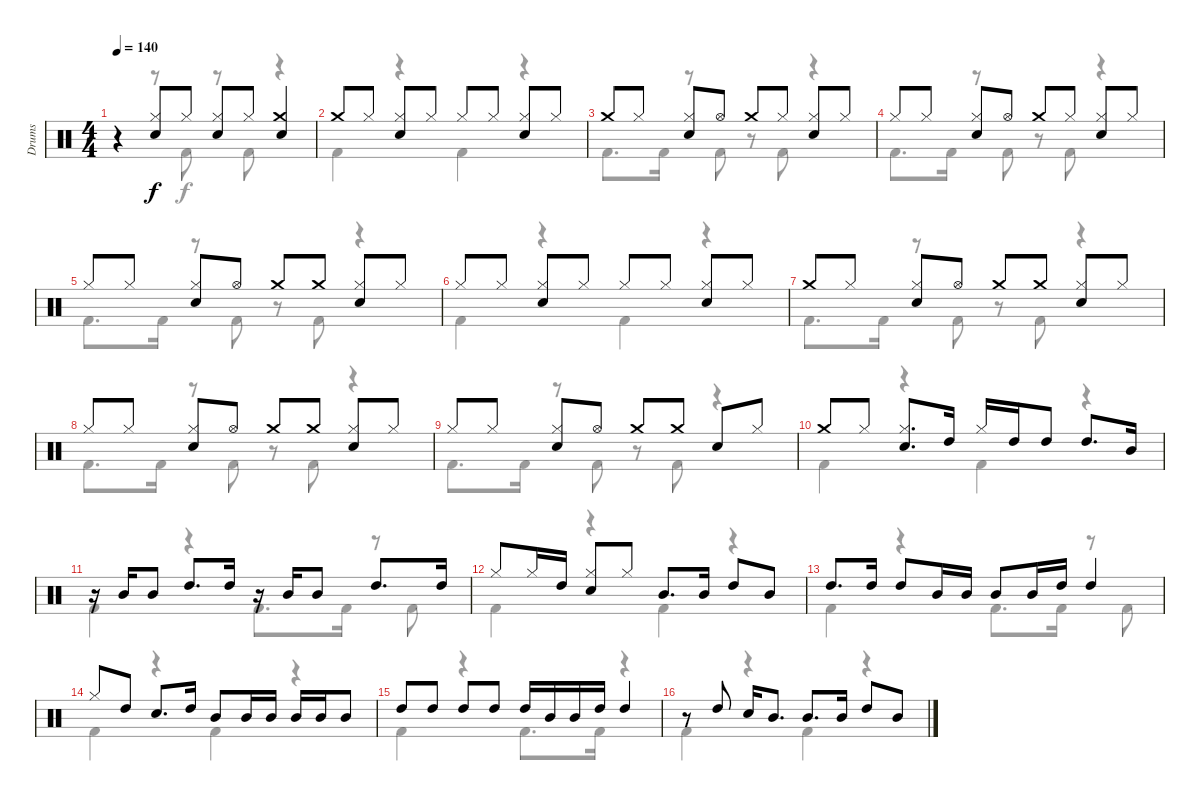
\track ("Drums" "Drums") {instrument percussion}
\staff {score}
\articulation defaults
\voice
\ts (4 4)
\tempo 140
\clef neutral
\ks c
r.4{dy f} ("Hi-Hat (closed)" "Snare (hit) 2").8 "Hi-Hat (closed)".8 ("Hi-Hat (closed)" "Snare (hit) 2").8 "Hi-Hat (closed)".8 ("Crash medium (hit)" "Snare (hit) 2").4 |
"Crash medium (hit)".8 "Hi-Hat (closed)".8 ("Hi-Hat (closed)" "Snare (hit) 2").8 "Hi-Hat (closed)".8 "Hi-Hat (closed)".8 "Hi-Hat (closed)".8 ("Hi-Hat (closed)" "Snare (hit) 2").8 "Hi-Hat (closed)".8 |
"Crash medium (hit)".8 "Hi-Hat (closed)".8 ("Hi-Hat (closed)" "Snare (hit) 2").8 "Hi-Hat (open)".8 "Crash medium (hit)".8 "Hi-Hat (closed)".8 ("Hi-Hat (closed)" "Snare (hit) 2").8 "Hi-Hat (closed)".8 |
"Hi-Hat (closed)".8 "Hi-Hat (closed)".8 ("Hi-Hat (closed)" "Snare (hit) 2").8 "Hi-Hat (open)".8 "Crash medium (hit)".8 "Hi-Hat (closed)".8 ("Hi-Hat (closed)" "Snare (hit) 2").8 "Hi-Hat (closed)".8 |
"Hi-Hat (closed)".8 "Hi-Hat (closed)".8 ("Hi-Hat (closed)" "Snare (hit) 2").8 "Hi-Hat (open)".8 "Crash medium (hit)".8 "Crash medium (hit)".8 ("Hi-Hat (closed)" "Snare (hit) 2").8 "Hi-Hat (closed)".8 |
"Hi-Hat (closed)".8 "Hi-Hat (closed)".8 ("Hi-Hat (closed)" "Snare (hit) 2").8 "Hi-Hat (closed)".8 "Hi-Hat (closed)".8 "Hi-Hat (closed)".8 ("Hi-Hat (closed)" "Snare (hit) 2").8 "Hi-Hat (closed)".8 |
"Crash medium (hit)".8 "Hi-Hat (closed)".8 ("Hi-Hat (closed)" "Snare (hit) 2").8 "Hi-Hat (open)".8 "Crash medium (hit)".8 "Crash medium (hit)".8 ("Hi-Hat (closed)" "Snare (hit) 2").8 "Hi-Hat (closed)".8 |
"Hi-Hat (closed)".8 "Hi-Hat (closed)".8 ("Hi-Hat (closed)" "Snare (hit) 2").8 "Hi-Hat (open)".8 "Crash medium (hit)".8 "Crash medium (hit)".8 ("Hi-Hat (closed)" "Snare (hit) 2").8 "Hi-Hat (closed)".8 |
"Hi-Hat (closed)".8 "Hi-Hat (closed)".8 ("Hi-Hat (closed)" "Snare (hit) 2").8 "Hi-Hat (open)".8 "Crash medium (hit)".8 "Crash medium (hit)".8 "Snare (hit) 2".8 "Hi-Hat (closed)".8 |
"Crash medium (hit)".8 "Hi-Hat (closed)".8 ("Hi-Hat (closed)" "Snare (hit) 2").8{d} "High Tom (hit)".16 "Hi-Hat (closed)".16 "High Tom (hit)".16 "High Tom (hit)".8 "High Tom (hit)".8{d} "Mid Tom (hit)".16 |
r.16 "Mid Tom (hit)".16 "Mid Tom (hit)".8 "High Tom (hit)".8{d} "High Tom (hit)".16 r.16 "Mid Tom (hit)".16 "Mid Tom (hit)".8 "High Tom (hit)".8{d} "High Tom (hit)".16 |
"Hi-Hat (closed)".8 "Hi-Hat (closed)".16 "High Tom (hit)".16 ("Hi-Hat (closed)" "Snare (hit) 2").8 "Hi-Hat (closed)".8 "Mid Tom (hit)".8{d} "Mid Tom (hit)".16 "High Tom (hit)".8 "Mid Tom (hit)".8 |
"High Tom (hit)".8{d} "High Tom (hit)".16 "High Tom (hit)".8 "Mid Tom (hit)".16 "Mid Tom (hit)".16 "Mid Tom (hit)".8 "Mid Tom (hit)".16 "High Tom (hit)".16 "High Tom (hit)".4 |
"Hi-Hat (closed)".8 "High Tom (hit)".8 "Snare (hit) 2".8{d} "High Tom (hit)".16 "Mid Tom (hit)".8 "Mid Tom (hit)".16 "Mid Tom (hit)".16 "Mid Tom (hit)".16 "Mid Tom (hit)".16 "Mid Tom (hit)".8 |
"High Tom (hit)".8 "High Tom (hit)".8 "High Tom (hit)".8 "High Tom (hit)".8 "High Tom (hit)".16 "Mid Tom (hit)".16 "Mid Tom (hit)".16 "High Tom (hit)".16 "High Tom (hit)".4 |
r.8 "High Tom (hit)".8 "Snare (hit) 2".16 "Mid Tom (hit)".8{d} "Mid Tom (hit)".8{d} "Mid Tom (hit)".16 "High Tom (hit)".8 "Mid Tom (hit)".8
\voice
\clef neutral
\ottava regular
\simile none
\ks c
r.4{dy f} r.8 "Kick (hit) 2".8 r.8 "Kick (hit) 2".8 r.4 |
"Kick (hit) 2".4 r.4 "Kick (hit) 2".4 r.4 |
"Kick (hit) 2".8{d} "Kick (hit) 2".16 r.8 "Kick (hit) 2".8 r.8 "Kick (hit) 2".8 r.4 |
"Kick (hit) 2".8{d} "Kick (hit) 2".16 r.8 "Kick (hit) 2".8 r.8 "Kick (hit) 2".8 r.4 |
"Kick (hit) 2".8{d} "Kick (hit) 2".16 r.8 "Kick (hit) 2".8 r.8 "Kick (hit) 2".8 r.4 |
"Kick (hit) 2".4 r.4 "Kick (hit) 2".4 r.4 |
"Kick (hit) 2".8{d} "Kick (hit) 2".16 r.8 "Kick (hit) 2".8 r.8 "Kick (hit) 2".8 r.4 |
"Kick (hit) 2".8{d} "Kick (hit) 2".16 r.8 "Kick (hit) 2".8 r.8 "Kick (hit) 2".8 r.4 |
"Kick (hit) 2".8{d} "Kick (hit) 2".16 r.8 "Kick (hit) 2".8 r.8 "Kick (hit) 2".8 r.4 |
"Kick (hit) 2".4 r.4 "Kick (hit) 2".4 r.4 |
"Kick (hit) 2".4 r.4 "Kick (hit) 2".8{d} "Kick (hit) 2".16 r.8 "Kick (hit) 2".8 |
"Kick (hit) 2".4 r.4 "Kick (hit) 2".4 r.4 |
"Kick (hit) 2".4 r.4 "Kick (hit) 2".8{d} "Kick (hit) 2".16 r.8 "Kick (hit) 2".8 |
"Kick (hit) 2".4 r.4 "Kick (hit) 2".4 r.4 |
"Kick (hit) 2".4 r.4 "Kick (hit) 2".8{d} "Kick (hit) 2".16 r.4 |
"Kick (hit) 2".4 r.4 "Kick (hit) 2".4 r.4
